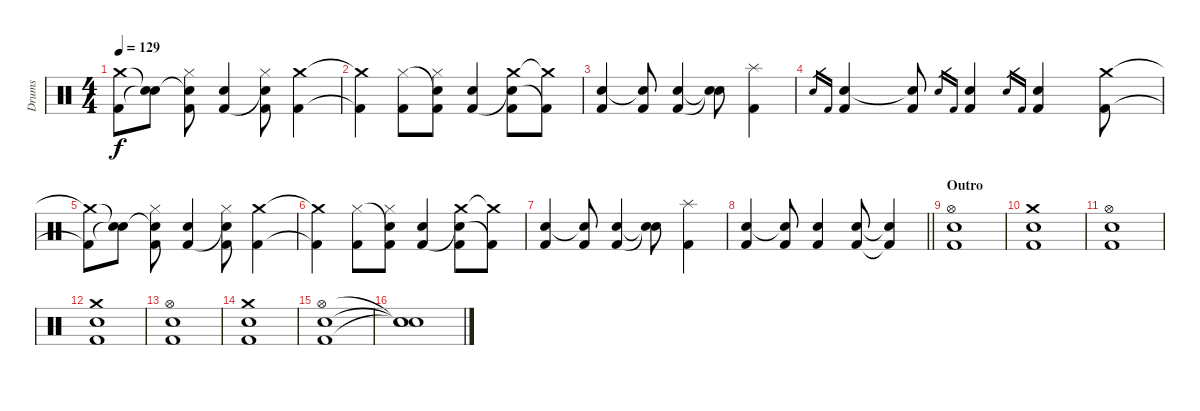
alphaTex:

\track ("Drums" "Drums") {instrument percussion}
\staff {score}
\articulation defaults
\ts (4 4)
\tempo 129
\clef neutral
\ks c
("Crash medium (hit)"{t} "Kick (hit) 2"{t}).8{dy f} ("Snare (hit)"{t} "Snare (hit)"{t}).8 ("Snare (hit)"{t} "Hi-Hat (closed)" "Kick (hit) 2").8 ("Electric Snare (hit)" "Kick (hit) 2").4 ("Hi-Hat (closed)" "Snare (hit)"{t} "Kick (hit) 2").8 ("Crash medium (hit)" "Kick (hit) 2").4 |
("Crash medium (hit)"{t} "Kick (hit) 2"{t}).4 ("Hi-Hat (closed)" "Kick (hit) 2").8 ("Snare (hit)"{t} "Hi-Hat (closed)" "Kick (hit) 2").8 ("Electric Snare (hit)" "Kick (hit) 2").4 ("Crash medium (hit)" "Snare (hit)"{t} "Kick (hit) 2").8 ("Crash medium (hit)"{t} "Kick (hit) 2"{t}).8 |
("Electric Snare (hit)" "Kick (hit) 2").4 ("Snare (hit)"{t} "Kick (hit) 2").8 ("Electric Snare (hit)" "Kick (hit) 2").4 ("Snare (hit)"{t} "Snare (hit)"{t}).8 ("Splash (hit)" "Kick (hit) 2").4 |
"Electric Snare (hit)".16{gr} "Kick (hit) 2".16{gr} ("Electric Snare (hit)" "Kick (hit) 2").4 ("Snare (hit)"{t} "Kick (hit) 2").8 "Electric Snare (hit)".16{gr} "Kick (hit) 2".16{gr} ("Electric Snare (hit)" "Kick (hit) 2").4 "Electric Snare (hit)".16{gr} "Kick (hit) 2".16{gr} ("Electric Snare (hit)" "Kick (hit) 2").4 ("Crash medium (hit)" "Kick (hit) 2").8 |
("Crash medium (hit)"{t} "Kick (hit) 2"{t}).8 ("Snare (hit)"{t} "Snare (hit)"{t}).8 ("Snare (hit)"{t} "Hi-Hat (closed)" "Kick (hit) 2").8 ("Electric Snare (hit)" "Kick (hit) 2").4 ("Hi-Hat (closed)" "Snare (hit)"{t} "Kick (hit) 2").8 ("Crash medium (hit)" "Kick (hit) 2").4 |
("Crash medium (hit)"{t} "Kick (hit) 2"{t}).4 ("Hi-Hat (closed)" "Kick (hit) 2").8 ("Snare (hit)"{t} "Hi-Hat (closed)" "Kick (hit) 2").8 ("Electric Snare (hit)" "Kick (hit) 2").4 ("Crash medium (hit)" "Snare (hit)"{t} "Kick (hit) 2").8 ("Crash medium (hit)"{t} "Kick (hit) 2"{t}).8 |
("Electric Snare (hit)" "Kick (hit) 2").4 ("Snare (hit)"{t} "Kick (hit) 2").8 ("Electric Snare (hit)" "Kick (hit) 2").4 ("Snare (hit)"{t} "Snare (hit)"{t}).8 ("Splash (hit)" "Kick (hit) 2").4 |
\barLineRight lightlight
("Electric Snare (hit)" "Kick (hit) 2").4 ("Snare (hit)"{t} "Kick (hit) 2").8 ("Electric Snare (hit)" "Kick (hit) 2").4 ("Electric Snare (hit)" "Kick (hit) 2").8 ("Snare (hit)"{t} "Kick (hit) 2"{t}).4 |
\section ("" "Outro")
("Hi-Hat (open)" "Electric Snare (hit)" "Kick (hit) 2").1 |
("Crash medium (hit)" "Electric Snare (hit)" "Kick (hit) 2").1 |
("Hi-Hat (open)" "Electric Snare (hit)" "Kick (hit) 2").1 |
("Crash medium (hit)" "Electric Snare (hit)" "Kick (hit) 2").1 |
("Hi-Hat (open)" "Electric Snare (hit)" "Kick (hit) 2").1 |
("Crash medium (hit)" "Electric Snare (hit)" "Kick (hit) 2").1 |
("Hi-Hat (open)" "Electric Snare (hit)" "Kick (hit) 2").1 |
("Snare (hit)"{t} "Snare (hit)"{t} "Snare (hit)"{t}).1
